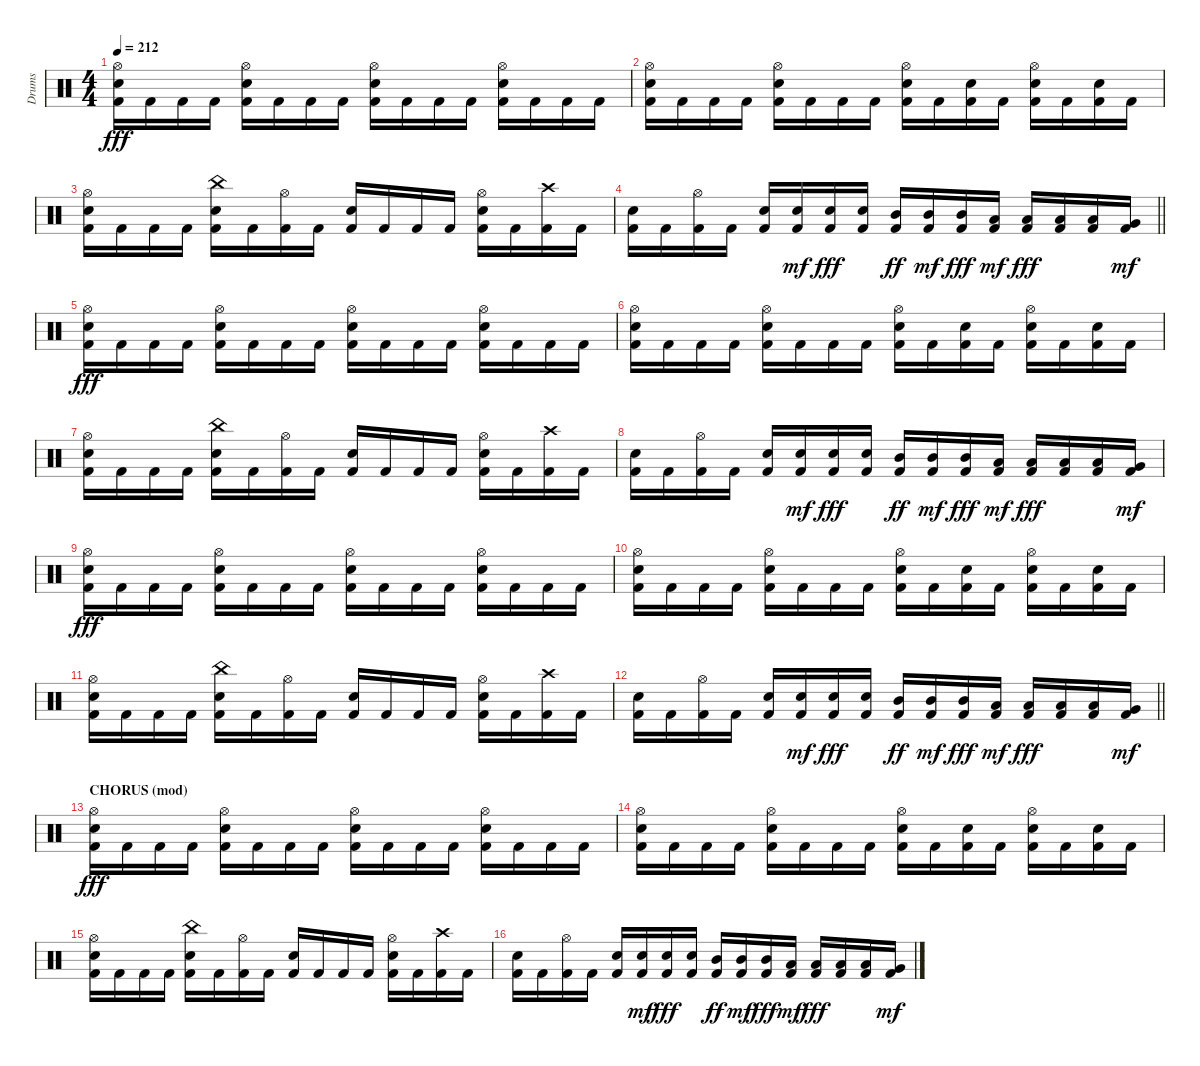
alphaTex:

\track ("Drums" "Drums") {instrument percussion}
\staff {score}
\articulation defaults
\ts (4 4)
\tempo 212
\clef neutral
\ks c
("Kick (hit) 2" "Snare (hit) 2" "Hi-Hat (open)").16{dy fff} "Kick (hit) 2".16 "Kick (hit) 2".16 "Kick (hit) 2".16 ("Kick (hit) 2" "Snare (hit) 2" "Hi-Hat (open)").16 "Kick (hit) 2".16 "Kick (hit) 2".16 "Kick (hit) 2".16 ("Kick (hit) 2" "Snare (hit) 2" "Hi-Hat (open)").16 "Kick (hit) 2".16 "Kick (hit) 2".16 "Kick (hit) 2".16 ("Kick (hit) 2" "Snare (hit) 2" "Hi-Hat (open)").16 "Kick (hit) 2".16 "Kick (hit) 2".16 "Kick (hit) 2".16 |
("Kick (hit) 2" "Snare (hit) 2" "Hi-Hat (open)").16 "Kick (hit) 2".16 "Kick (hit) 2".16 "Kick (hit) 2".16 ("Kick (hit) 2" "Snare (hit) 2" "Hi-Hat (open)").16 "Kick (hit) 2".16 "Kick (hit) 2".16 "Kick (hit) 2".16 ("Kick (hit) 2" "Snare (hit) 2" "Hi-Hat (open)").16 "Kick (hit) 2".16 ("Kick (hit) 2" "Snare (hit) 2").16 "Kick (hit) 2".16 ("Kick (hit) 2" "Snare (hit) 2" "Hi-Hat (open)").16 "Kick (hit) 2".16 ("Kick (hit) 2" "Snare (hit) 2").16 "Kick (hit) 2".16 |
("Kick (hit) 2" "Snare (hit) 2" "Hi-Hat (open)").16 "Kick (hit) 2".16 "Kick (hit) 2".16 "Kick (hit) 2".16 ("Kick (hit) 2" "Snare (hit) 2" "China (hit)").16 "Kick (hit) 2".16 ("Kick (hit) 2" "Hi-Hat (open)").16 "Kick (hit) 2".16 ("Kick (hit) 2" "Snare (hit) 2").16 "Kick (hit) 2".16 "Kick (hit) 2".16 "Kick (hit) 2".16 ("Kick (hit) 2" "Snare (hit) 2" "Hi-Hat (open)").16 "Kick (hit) 2".16 ("Kick (hit) 2" "Crash high (hit)").16 "Kick (hit) 2".16 |
\barLineRight lightlight
("Kick (hit) 2" "Snare (hit) 2").16 "Kick (hit) 2".16 ("Kick (hit) 2" "Hi-Hat (open)").16 "Kick (hit) 2".16 ("Kick (hit) 2" "Snare (hit) 2").16 ("Kick (hit) 2" "Snare (hit) 2").16{dy mf} ("Kick (hit) 2" "Snare (hit) 2").16{dy fff} ("Kick (hit) 2" "Snare (hit) 2").16 ("Kick (hit) 2" "Mid Tom (hit)").16{dy ff} ("Kick (hit) 2" "Mid Tom (hit)").16{dy mf} ("Kick (hit) 2" "Mid Tom (hit)").16{dy fff} ("Kick (hit) 2" "Low Tom (hit)").16{dy mf} ("Kick (hit) 2" "Low Tom (hit)").16{dy fff} ("Kick (hit) 2" "Low Tom (hit)").16 ("Kick (hit) 2" "Low Tom (hit)").16 ("Kick (hit) 2" "Very Low Tom (hit)").16{dy mf} |
("Kick (hit) 2" "Snare (hit) 2" "Hi-Hat (open)").16{dy fff} "Kick (hit) 2".16 "Kick (hit) 2".16 "Kick (hit) 2".16 ("Kick (hit) 2" "Snare (hit) 2" "Hi-Hat (open)").16 "Kick (hit) 2".16 "Kick (hit) 2".16 "Kick (hit) 2".16 ("Kick (hit) 2" "Snare (hit) 2" "Hi-Hat (open)").16 "Kick (hit) 2".16 "Kick (hit) 2".16 "Kick (hit) 2".16 ("Kick (hit) 2" "Snare (hit) 2" "Hi-Hat (open)").16 "Kick (hit) 2".16 "Kick (hit) 2".16 "Kick (hit) 2".16 |
("Kick (hit) 2" "Snare (hit) 2" "Hi-Hat (open)").16 "Kick (hit) 2".16 "Kick (hit) 2".16 "Kick (hit) 2".16 ("Kick (hit) 2" "Snare (hit) 2" "Hi-Hat (open)").16 "Kick (hit) 2".16 "Kick (hit) 2".16 "Kick (hit) 2".16 ("Kick (hit) 2" "Snare (hit) 2" "Hi-Hat (open)").16 "Kick (hit) 2".16 ("Kick (hit) 2" "Snare (hit) 2").16 "Kick (hit) 2".16 ("Kick (hit) 2" "Snare (hit) 2" "Hi-Hat (open)").16 "Kick (hit) 2".16 ("Kick (hit) 2" "Snare (hit) 2").16 "Kick (hit) 2".16 |
("Kick (hit) 2" "Snare (hit) 2" "Hi-Hat (open)").16 "Kick (hit) 2".16 "Kick (hit) 2".16 "Kick (hit) 2".16 ("Kick (hit) 2" "Snare (hit) 2" "China (hit)").16 "Kick (hit) 2".16 ("Kick (hit) 2" "Hi-Hat (open)").16 "Kick (hit) 2".16 ("Kick (hit) 2" "Snare (hit) 2").16 "Kick (hit) 2".16 "Kick (hit) 2".16 "Kick (hit) 2".16 ("Kick (hit) 2" "Snare (hit) 2" "Hi-Hat (open)").16 "Kick (hit) 2".16 ("Kick (hit) 2" "Crash high (hit)").16 "Kick (hit) 2".16 |
("Kick (hit) 2" "Snare (hit) 2").16 "Kick (hit) 2".16 ("Kick (hit) 2" "Hi-Hat (open)").16 "Kick (hit) 2".16 ("Kick (hit) 2" "Snare (hit) 2").16 ("Kick (hit) 2" "Snare (hit) 2").16{dy mf} ("Kick (hit) 2" "Snare (hit) 2").16{dy fff} ("Kick (hit) 2" "Snare (hit) 2").16 ("Kick (hit) 2" "Mid Tom (hit)").16{dy ff} ("Kick (hit) 2" "Mid Tom (hit)").16{dy mf} ("Kick (hit) 2" "Mid Tom (hit)").16{dy fff} ("Kick (hit) 2" "Low Tom (hit)").16{dy mf} ("Kick (hit) 2" "Low Tom (hit)").16{dy fff} ("Kick (hit) 2" "Low Tom (hit)").16 ("Kick (hit) 2" "Low Tom (hit)").16 ("Kick (hit) 2" "Very Low Tom (hit)").16{dy mf} |
("Kick (hit) 2" "Snare (hit) 2" "Hi-Hat (open)").16{dy fff} "Kick (hit) 2".16 "Kick (hit) 2".16 "Kick (hit) 2".16 ("Kick (hit) 2" "Snare (hit) 2" "Hi-Hat (open)").16 "Kick (hit) 2".16 "Kick (hit) 2".16 "Kick (hit) 2".16 ("Kick (hit) 2" "Snare (hit) 2" "Hi-Hat (open)").16 "Kick (hit) 2".16 "Kick (hit) 2".16 "Kick (hit) 2".16 ("Kick (hit) 2" "Snare (hit) 2" "Hi-Hat (open)").16 "Kick (hit) 2".16 "Kick (hit) 2".16 "Kick (hit) 2".16 |
("Kick (hit) 2" "Snare (hit) 2" "Hi-Hat (open)").16 "Kick (hit) 2".16 "Kick (hit) 2".16 "Kick (hit) 2".16 ("Kick (hit) 2" "Snare (hit) 2" "Hi-Hat (open)").16 "Kick (hit) 2".16 "Kick (hit) 2".16 "Kick (hit) 2".16 ("Kick (hit) 2" "Snare (hit) 2" "Hi-Hat (open)").16 "Kick (hit) 2".16 ("Kick (hit) 2" "Snare (hit) 2").16 "Kick (hit) 2".16 ("Kick (hit) 2" "Snare (hit) 2" "Hi-Hat (open)").16 "Kick (hit) 2".16 ("Kick (hit) 2" "Snare (hit) 2").16 "Kick (hit) 2".16 |
("Kick (hit) 2" "Snare (hit) 2" "Hi-Hat (open)").16 "Kick (hit) 2".16 "Kick (hit) 2".16 "Kick (hit) 2".16 ("Kick (hit) 2" "Snare (hit) 2" "China (hit)").16 "Kick (hit) 2".16 ("Kick (hit) 2" "Hi-Hat (open)").16 "Kick (hit) 2".16 ("Kick (hit) 2" "Snare (hit) 2").16 "Kick (hit) 2".16 "Kick (hit) 2".16 "Kick (hit) 2".16 ("Kick (hit) 2" "Snare (hit) 2" "Hi-Hat (open)").16 "Kick (hit) 2".16 ("Kick (hit) 2" "Crash high (hit)").16 "Kick (hit) 2".16 |
\barLineRight lightlight
("Kick (hit) 2" "Snare (hit) 2").16 "Kick (hit) 2".16 ("Kick (hit) 2" "Hi-Hat (open)").16 "Kick (hit) 2".16 ("Kick (hit) 2" "Snare (hit) 2").16 ("Kick (hit) 2" "Snare (hit) 2").16{dy mf} ("Kick (hit) 2" "Snare (hit) 2").16{dy fff} ("Kick (hit) 2" "Snare (hit) 2").16 ("Kick (hit) 2" "Mid Tom (hit)").16{dy ff} ("Kick (hit) 2" "Mid Tom (hit)").16{dy mf} ("Kick (hit) 2" "Mid Tom (hit)").16{dy fff} ("Kick (hit) 2" "Low Tom (hit)").16{dy mf} ("Kick (hit) 2" "Low Tom (hit)").16{dy fff} ("Kick (hit) 2" "Low Tom (hit)").16 ("Kick (hit) 2" "Low Tom (hit)").16 ("Kick (hit) 2" "Very Low Tom (hit)").16{dy mf} |
\section ("" "CHORUS (mod)")
("Kick (hit) 2" "Snare (hit) 2" "Hi-Hat (open)").16{dy fff} "Kick (hit) 2".16 "Kick (hit) 2".16 "Kick (hit) 2".16 ("Kick (hit) 2" "Snare (hit) 2" "Hi-Hat (open)").16 "Kick (hit) 2".16 "Kick (hit) 2".16 "Kick (hit) 2".16 ("Kick (hit) 2" "Snare (hit) 2" "Hi-Hat (open)").16 "Kick (hit) 2".16 "Kick (hit) 2".16 "Kick (hit) 2".16 ("Kick (hit) 2" "Snare (hit) 2" "Hi-Hat (open)").16 "Kick (hit) 2".16 "Kick (hit) 2".16 "Kick (hit) 2".16 |
("Kick (hit) 2" "Snare (hit) 2" "Hi-Hat (open)").16 "Kick (hit) 2".16 "Kick (hit) 2".16 "Kick (hit) 2".16 ("Kick (hit) 2" "Snare (hit) 2" "Hi-Hat (open)").16 "Kick (hit) 2".16 "Kick (hit) 2".16 "Kick (hit) 2".16 ("Kick (hit) 2" "Snare (hit) 2" "Hi-Hat (open)").16 "Kick (hit) 2".16 ("Kick (hit) 2" "Snare (hit) 2").16 "Kick (hit) 2".16 ("Kick (hit) 2" "Snare (hit) 2" "Hi-Hat (open)").16 "Kick (hit) 2".16 ("Kick (hit) 2" "Snare (hit) 2").16 "Kick (hit) 2".16 |
("Kick (hit) 2" "Snare (hit) 2" "Hi-Hat (open)").16 "Kick (hit) 2".16 "Kick (hit) 2".16 "Kick (hit) 2".16 ("Kick (hit) 2" "Snare (hit) 2" "China (hit)").16 "Kick (hit) 2".16 ("Kick (hit) 2" "Hi-Hat (open)").16 "Kick (hit) 2".16 ("Kick (hit) 2" "Snare (hit) 2").16 "Kick (hit) 2".16 "Kick (hit) 2".16 "Kick (hit) 2".16 ("Kick (hit) 2" "Snare (hit) 2" "Hi-Hat (open)").16 "Kick (hit) 2".16 ("Kick (hit) 2" "Crash high (hit)").16 "Kick (hit) 2".16 |
("Kick (hit) 2" "Snare (hit) 2").16 "Kick (hit) 2".16 ("Kick (hit) 2" "Hi-Hat (open)").16 "Kick (hit) 2".16 ("Kick (hit) 2" "Snare (hit) 2").16 ("Kick (hit) 2" "Snare (hit) 2").16{dy mf} ("Kick (hit) 2" "Snare (hit) 2").16{dy fff} ("Kick (hit) 2" "Snare (hit) 2").16 ("Kick (hit) 2" "Mid Tom (hit)").16{dy ff} ("Kick (hit) 2" "Mid Tom (hit)").16{dy mf} ("Kick (hit) 2" "Mid Tom (hit)").16{dy fff} ("Kick (hit) 2" "Low Tom (hit)").16{dy mf} ("Kick (hit) 2" "Low Tom (hit)").16{dy fff} ("Kick (hit) 2" "Low Tom (hit)").16 ("Kick (hit) 2" "Low Tom (hit)").16 ("Kick (hit) 2" "Very Low Tom (hit)").16{dy mf}
